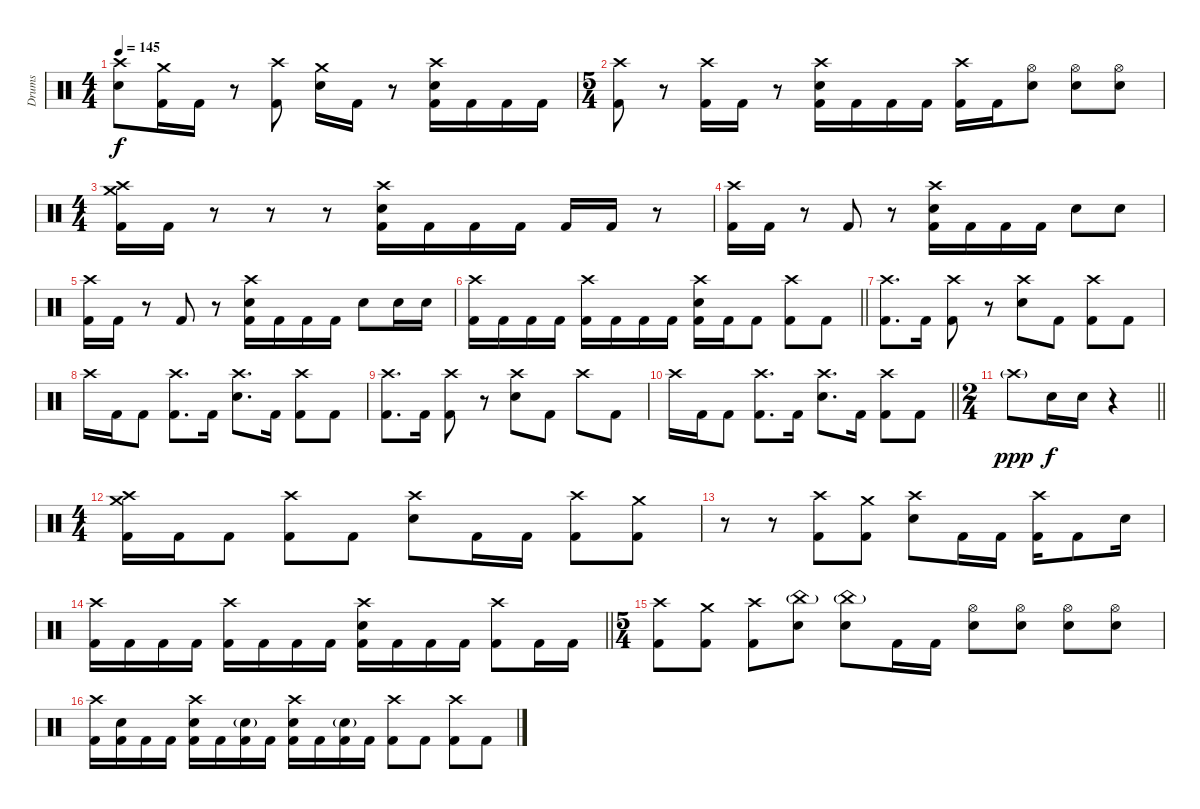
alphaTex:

\track ("Drums" "Drums") {instrument percussion}
\staff {score}
\articulation defaults
\ts (4 4)
\tempo 145
\clef neutral
\ks c
("Crash high (hit)" "Electric Snare (hit)").8{dy f} ("Crash medium (hit)" "Kick (hit) 2").16 "Kick (hit) 2".16 r.8 ("Crash high (hit)" "Kick (hit) 2").8 ("Crash medium (hit)" "Electric Snare (hit)").16 "Kick (hit) 2".16 r.8 ("Crash high (hit)" "Electric Snare (hit)" "Kick (hit) 2").16 "Kick (hit) 2".16 "Kick (hit) 2".16 "Kick (hit) 2".16 |
\ts (5 4)
("Crash high (hit)" "Kick (hit) 2").8 r.8 ("Crash high (hit)" "Kick (hit) 2").16 "Kick (hit) 2".16 r.8 ("Crash high (hit)" "Electric Snare (hit)" "Kick (hit) 2").16 "Kick (hit) 2".16 "Kick (hit) 2".16 "Kick (hit) 2".16 ("Crash high (hit)" "Kick (hit) 2").16 "Kick (hit) 2".16 ("Hi-Hat (open)" "Electric Snare (hit)").8 ("Hi-Hat (open)" "Electric Snare (hit)").8 ("Hi-Hat (open)" "Electric Snare (hit)").8 |
\ts (4 4)
("Crash high (hit)" "Crash medium (hit)" "Kick (hit) 2").16 "Kick (hit) 2".16 r.8 r.8 r.8 ("Crash high (hit)" "Electric Snare (hit)" "Kick (hit) 2").16 "Kick (hit) 2".16 "Kick (hit) 2".16 "Kick (hit) 2".16 "Kick (hit) 2".16 "Kick (hit) 2".16 r.8 |
("Crash high (hit)" "Kick (hit) 2").16 "Kick (hit) 2".16 r.8 "Kick (hit) 2".8 r.8 ("Crash high (hit)" "Electric Snare (hit)" "Kick (hit) 2").16 "Kick (hit) 2".16 "Kick (hit) 2".16 "Kick (hit) 2".16 "Electric Snare (hit)".8 "Electric Snare (hit)".8 |
("Crash high (hit)" "Kick (hit) 2").16 "Kick (hit) 2".16 r.8 "Kick (hit) 2".8 r.8 ("Crash high (hit)" "Electric Snare (hit)" "Kick (hit) 2").16 "Kick (hit) 2".16 "Kick (hit) 2".16 "Kick (hit) 2".16 "Electric Snare (hit)".8 "Electric Snare (hit)".16 "Electric Snare (hit)".16 |
\barLineRight lightlight
("Crash high (hit)" "Kick (hit) 2").16 "Kick (hit) 2".16 "Kick (hit) 2".16 "Kick (hit) 2".16 ("Crash high (hit)" "Kick (hit) 2").16 "Kick (hit) 2".16 "Kick (hit) 2".16 "Kick (hit) 2".16 ("Crash high (hit)" "Electric Snare (hit)" "Kick (hit) 2").16 "Kick (hit) 2".16 "Kick (hit) 2".8 ("Crash high (hit)" "Kick (hit) 2").8 "Kick (hit) 2".8 |
("Crash high (hit)" "Kick (hit) 2").8{d} "Kick (hit) 2".16 ("Crash high (hit)" "Kick (hit) 2").8 r.8 ("Crash high (hit)" "Electric Snare (hit)").8 "Kick (hit) 2".8 ("Crash high (hit)" "Kick (hit) 2").8 "Kick (hit) 2".8 |
"Crash high (hit)".16 "Kick (hit) 2".16 "Kick (hit) 2".8 ("Crash high (hit)" "Kick (hit) 2").8{d} "Kick (hit) 2".16 ("Crash high (hit)" "Electric Snare (hit)").8{d} "Kick (hit) 2".16 ("Crash high (hit)" "Kick (hit) 2").8 "Kick (hit) 2".8 |
("Crash high (hit)" "Kick (hit) 2").8{d} "Kick (hit) 2".16 ("Crash high (hit)" "Kick (hit) 2").8 r.8 ("Crash high (hit)" "Electric Snare (hit)").8 "Kick (hit) 2".8 "Crash high (hit)".8 "Kick (hit) 2".8 |
\barLineRight lightlight "Crash high (hit)".16 "Kick (hit) 2".16 "Kick (hit) 2".8
("Crash high (hit)" "Kick (hit) 2").8{d} "Kick (hit) 2".16 ("Crash high (hit)" "Electric Snare (hit)").8{d} "Kick (hit) 2".16 ("Crash high (hit)" "Kick (hit) 2").8 "Kick (hit) 2".8 |
\ts (2 4)
\barLineRight lightlight "Crash high (hit)"{g}.8{dy ppp} "Electric Snare (hit)".16{dy f} "Electric Snare (hit)".16
r.4 |
\ts (4 4)
("Crash high (hit)" "Crash medium (hit)" "Kick (hit) 2").16 "Kick (hit) 2".16 "Kick (hit) 2".8 ("Crash high (hit)" "Kick (hit) 2").8 "Kick (hit) 2".8 ("Crash high (hit)" "Electric Snare (hit)").8 "Kick (hit) 2".16 "Kick (hit) 2".16 ("Crash high (hit)" "Kick (hit) 2").8 ("Crash medium (hit)" "Kick (hit) 2").8 |
r.8 r.8 ("Crash high (hit)" "Kick (hit) 2").8 ("Crash medium (hit)" "Kick (hit) 2").8 ("Crash high (hit)" "Electric Snare (hit)").8 "Kick (hit) 2".16 "Kick (hit) 2".16 ("Crash high (hit)" "Kick (hit) 2").16 "Kick (hit) 2".8 "Electric Snare (hit)".16 |
\barLineRight lightlight
("Crash high (hit)" "Kick (hit) 2").16 "Kick (hit) 2".16 "Kick (hit) 2".16 "Kick (hit) 2".16 ("Crash high (hit)" "Kick (hit) 2").16 "Kick (hit) 2".16 "Kick (hit) 2".16 "Kick (hit) 2".16 ("Crash high (hit)" "Electric Snare (hit)" "Kick (hit) 2").16 "Kick (hit) 2".16 "Kick (hit) 2".16 "Kick (hit) 2".16 ("Crash high (hit)" "Kick (hit) 2").8 "Kick (hit) 2".16 "Kick (hit) 2".16 |
\ts (5 4)
("Crash high (hit)" "Kick (hit) 2").8 ("Crash medium (hit)" "Kick (hit) 2").8 ("Crash high (hit)" "Kick (hit) 2").8 ("China (hit)"{g} "Electric Snare (hit)").8 ("China (hit)"{g} "Electric Snare (hit)").8 "Kick (hit) 2".16 "Kick (hit) 2".16 ("Hi-Hat (open)" "Electric Snare (hit)").8 ("Hi-Hat (open)" "Electric Snare (hit)").8 ("Hi-Hat (open)" "Electric Snare (hit)").8 ("Hi-Hat (open)" "Electric Snare (hit)").8 |
("Crash high (hit)" "Kick (hit) 2").16 ("Electric Snare (hit)" "Kick (hit) 2").16 "Kick (hit) 2".16 "Kick (hit) 2".16 ("Crash high (hit)" "Electric Snare (hit)" "Kick (hit) 2").16 "Kick (hit) 2".16 ("Electric Snare (hit)"{g} "Kick (hit) 2").16 "Kick (hit) 2".16 ("Crash high (hit)" "Electric Snare (hit)" "Kick (hit) 2").16 "Kick (hit) 2".16 ("Electric Snare (hit)"{g} "Kick (hit) 2").16 "Kick (hit) 2".16 ("Crash high (hit)" "Kick (hit) 2").8 "Kick (hit) 2".8 ("Crash high (hit)" "Kick (hit) 2").8 "Kick (hit) 2".8
